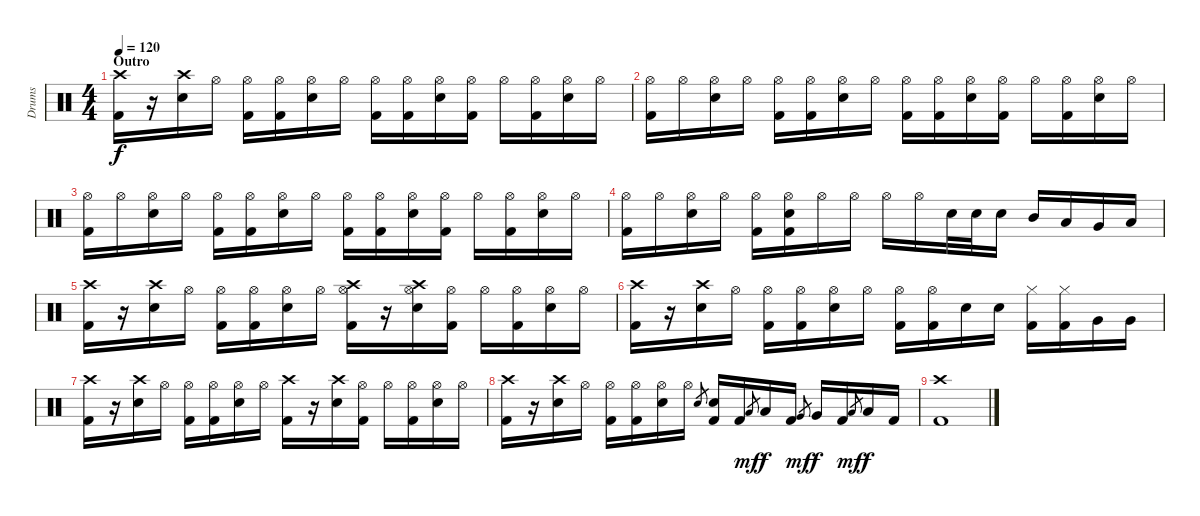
\track ("Drums" "Drums") {instrument percussion}
\staff {score}
\articulation defaults
\ts (4 4)
\section ("" "Outro")
\tempo 120
\clef neutral
\ks c
("Crash high (hit)" "Kick (hit) 2").16{dy f} r.16 ("Crash high (hit)" "Electric Snare (hit)").16 "Hi-Hat (open)".16 ("Hi-Hat (open)" "Kick (hit) 2").16 ("Hi-Hat (open)" "Kick (hit) 2").16 ("Hi-Hat (open)" "Electric Snare (hit)").16 "Hi-Hat (open)".16 ("Hi-Hat (open)" "Kick (hit) 2").16 ("Hi-Hat (open)" "Kick (hit) 2").16 ("Hi-Hat (open)" "Electric Snare (hit)").16 ("Hi-Hat (open)" "Kick (hit) 2").16 "Hi-Hat (open)".16 ("Hi-Hat (open)" "Kick (hit) 2").16 ("Hi-Hat (open)" "Electric Snare (hit)").16 "Hi-Hat (open)".16 |
("Hi-Hat (open)" "Kick (hit) 2").16 "Hi-Hat (open)".16 ("Hi-Hat (open)" "Electric Snare (hit)").16 "Hi-Hat (open)".16 ("Hi-Hat (open)" "Kick (hit) 2").16 ("Hi-Hat (open)" "Kick (hit) 2").16 ("Hi-Hat (open)" "Electric Snare (hit)").16 "Hi-Hat (open)".16 ("Hi-Hat (open)" "Kick (hit) 2").16 ("Hi-Hat (open)" "Kick (hit) 2").16 ("Hi-Hat (open)" "Electric Snare (hit)").16 ("Hi-Hat (open)" "Kick (hit) 2").16 "Hi-Hat (open)".16 ("Hi-Hat (open)" "Kick (hit) 2").16 ("Hi-Hat (open)" "Electric Snare (hit)").16 "Hi-Hat (open)".16 |
("Hi-Hat (open)" "Kick (hit) 2").16 "Hi-Hat (open)".16 ("Hi-Hat (open)" "Electric Snare (hit)").16 "Hi-Hat (open)".16 ("Hi-Hat (open)" "Kick (hit) 2").16 ("Hi-Hat (open)" "Kick (hit) 2").16 ("Hi-Hat (open)" "Electric Snare (hit)").16 "Hi-Hat (open)".16 ("Hi-Hat (open)" "Kick (hit) 2").16 ("Hi-Hat (open)" "Kick (hit) 2").16 ("Hi-Hat (open)" "Electric Snare (hit)").16 ("Hi-Hat (open)" "Kick (hit) 2").16 "Hi-Hat (open)".16 ("Hi-Hat (open)" "Kick (hit) 2").16 ("Hi-Hat (open)" "Electric Snare (hit)").16 "Hi-Hat (open)".16 |
("Hi-Hat (open)" "Kick (hit) 2").16 "Hi-Hat (open)".16 ("Hi-Hat (open)" "Electric Snare (hit)").16 "Hi-Hat (open)".16 ("Hi-Hat (open)" "Kick (hit) 2").16 ("Hi-Hat (open)" "Electric Snare (hit)" "Kick (hit) 2").16 "Hi-Hat (open)".16 "Hi-Hat (open)".16 "Hi-Hat (open)".16 "Hi-Hat (open)".16 "Electric Snare (hit)".32 "Electric Snare (hit)".32 "Electric Snare (hit)".16 "Mid Tom (hit)".16 "Low Tom (hit)".16 "Very Low Tom (hit)".16 "Low Floor Tom (hit)".16 |
("Crash high (hit)" "Kick (hit) 2").16 r.16 ("Crash high (hit)" "Electric Snare (hit)").16 "Hi-Hat (open)".16 ("Hi-Hat (open)" "Kick (hit) 2").16 ("Hi-Hat (open)" "Kick (hit) 2").16 ("Hi-Hat (open)" "Electric Snare (hit)").16 "Hi-Hat (open)".16 ("Crash high (hit)" "Hi-Hat (open)" "Kick (hit) 2").16 r.16 ("Crash high (hit)" "Hi-Hat (open)" "Electric Snare (hit)").16 ("Hi-Hat (open)" "Kick (hit) 2").16 "Hi-Hat (open)".16 ("Hi-Hat (open)" "Kick (hit) 2").16 ("Hi-Hat (open)" "Electric Snare (hit)").16 "Hi-Hat (open)".16 |
("Crash high (hit)" "Kick (hit) 2").16 r.16 ("Crash high (hit)" "Electric Snare (hit)").16 "Hi-Hat (open)".16 ("Hi-Hat (open)" "Kick (hit) 2").16 ("Hi-Hat (open)" "Kick (hit) 2").16 ("Hi-Hat (open)" "Electric Snare (hit)").16 "Hi-Hat (open)".16 ("Hi-Hat (open)" "Kick (hit) 2").16 ("Hi-Hat (open)" "Kick (hit) 2").16 "Electric Snare (hit)".16 "Electric Snare (hit)".16 ("Hi-Hat (closed)" "Kick (hit) 2").16 ("Hi-Hat (closed)" "Kick (hit) 2").16 "Very Low Tom (hit)".16 "Very Low Tom (hit)".16 |
("Crash high (hit)" "Kick (hit) 2").16 r.16 ("Crash high (hit)" "Electric Snare (hit)").16 "Hi-Hat (open)".16 ("Hi-Hat (open)" "Kick (hit) 2").16 ("Hi-Hat (open)" "Kick (hit) 2").16 ("Hi-Hat (open)" "Electric Snare (hit)").16 "Hi-Hat (open)".16 ("Crash high (hit)" "Kick (hit) 2").16 r.16 ("Crash high (hit)" "Electric Snare (hit)").16 ("Hi-Hat (open)" "Kick (hit) 2").16 "Hi-Hat (open)".16 ("Hi-Hat (open)" "Kick (hit) 2").16 ("Hi-Hat (open)" "Electric Snare (hit)").16 "Hi-Hat (open)".16 |
("Crash high (hit)" "Kick (hit) 2").16 r.16 ("Crash high (hit)" "Electric Snare (hit)").16 "Hi-Hat (open)".16 ("Hi-Hat (open)" "Kick (hit) 2").16 ("Hi-Hat (open)" "Kick (hit) 2").16 ("Hi-Hat (open)" "Electric Snare (hit)").16 "Hi-Hat (open)".16 "Electric Snare (hit)".8{gr} ("Electric Snare (hit)" "Kick (hit) 2").16 "Kick (hit) 2".16 "Low Tom (hit)".8{gr dy mf} "Low Tom (hit)".16{dy f} "Kick (hit) 2".16 "Very Low Tom (hit)".8{gr dy mf} "Very Low Tom (hit)".16{dy f} "Kick (hit) 2".16 "Low Floor Tom (hit)".8{gr dy mf} "Low Floor Tom (hit)".16{dy f} "Kick (hit) 2".16 |
("Crash high (hit)" "Kick (hit) 2").1
